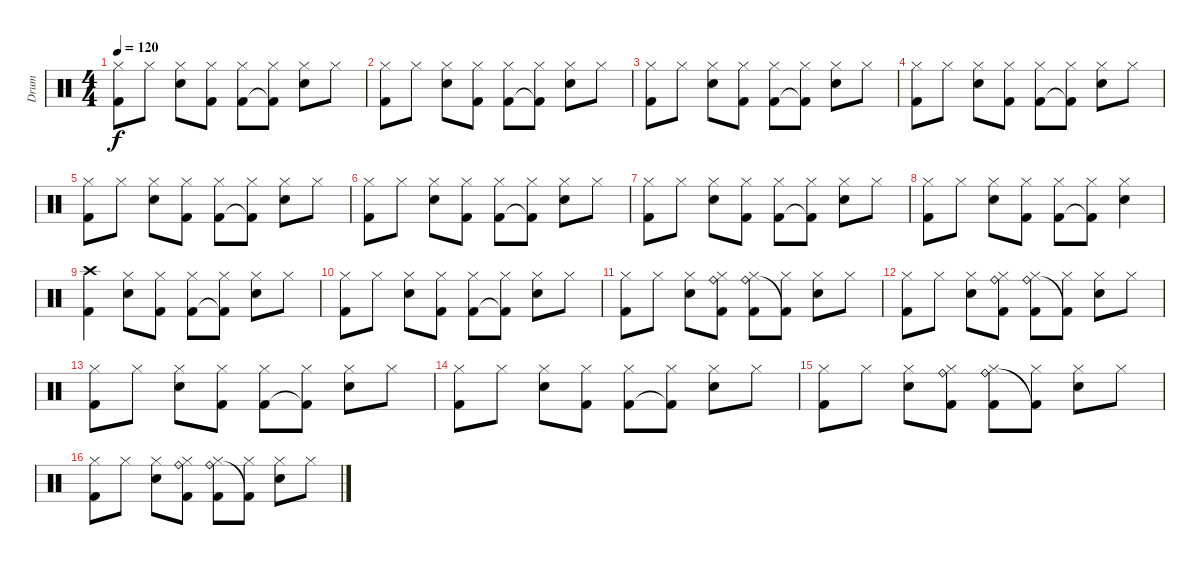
\track ("Drum" "Drum") {instrument percussion}
\staff {score}
\articulation defaults
\ts (4 4)
\tempo 120
\clef neutral
\ks c
("Hi-Hat (closed)" "Kick (hit) 2").8{dy f} "Hi-Hat (closed)".8 ("Hi-Hat (closed)" "Snare (hit) 2").8 ("Hi-Hat (closed)" "Kick (hit) 2").8 ("Hi-Hat (closed)" "Kick (hit) 2").8 ("Hi-Hat (closed)" "Kick (hit) 2"{t}).8 ("Hi-Hat (closed)" "Snare (hit) 2").8 "Hi-Hat (closed)".8 |
("Hi-Hat (closed)" "Kick (hit) 2").8 "Hi-Hat (closed)".8 ("Hi-Hat (closed)" "Snare (hit) 2").8 ("Hi-Hat (closed)" "Kick (hit) 2").8 ("Hi-Hat (closed)" "Kick (hit) 2").8 ("Hi-Hat (closed)" "Kick (hit) 2"{t}).8 ("Hi-Hat (closed)" "Snare (hit) 2").8 "Hi-Hat (closed)".8 |
("Hi-Hat (closed)" "Kick (hit) 2").8 "Hi-Hat (closed)".8 ("Hi-Hat (closed)" "Snare (hit) 2").8 ("Hi-Hat (closed)" "Kick (hit) 2").8 ("Hi-Hat (closed)" "Kick (hit) 2").8 ("Hi-Hat (closed)" "Kick (hit) 2"{t}).8 ("Hi-Hat (closed)" "Snare (hit) 2").8 "Hi-Hat (closed)".8 |
("Hi-Hat (closed)" "Kick (hit) 2").8 "Hi-Hat (closed)".8 ("Hi-Hat (closed)" "Snare (hit) 2").8 ("Hi-Hat (closed)" "Kick (hit) 2").8 ("Hi-Hat (closed)" "Kick (hit) 2").8 ("Hi-Hat (closed)" "Kick (hit) 2"{t}).8 ("Hi-Hat (closed)" "Snare (hit) 2").8 "Hi-Hat (closed)".8 |
("Hi-Hat (closed)" "Kick (hit) 2").8 "Hi-Hat (closed)".8 ("Hi-Hat (closed)" "Snare (hit) 2").8 ("Hi-Hat (closed)" "Kick (hit) 2").8 ("Hi-Hat (closed)" "Kick (hit) 2").8 ("Hi-Hat (closed)" "Kick (hit) 2"{t}).8 ("Hi-Hat (closed)" "Snare (hit) 2").8 "Hi-Hat (closed)".8 |
("Hi-Hat (closed)" "Kick (hit) 2").8 "Hi-Hat (closed)".8 ("Hi-Hat (closed)" "Snare (hit) 2").8 ("Hi-Hat (closed)" "Kick (hit) 2").8 ("Hi-Hat (closed)" "Kick (hit) 2").8 ("Hi-Hat (closed)" "Kick (hit) 2"{t}).8 ("Hi-Hat (closed)" "Snare (hit) 2").8 "Hi-Hat (closed)".8 |
("Hi-Hat (closed)" "Kick (hit) 2").8 "Hi-Hat (closed)".8 ("Hi-Hat (closed)" "Snare (hit) 2").8 ("Hi-Hat (closed)" "Kick (hit) 2").8 ("Hi-Hat (closed)" "Kick (hit) 2").8 ("Hi-Hat (closed)" "Kick (hit) 2"{t}).8 ("Hi-Hat (closed)" "Snare (hit) 2").8 "Hi-Hat (closed)".8 |
("Hi-Hat (closed)" "Kick (hit) 2").8 "Hi-Hat (closed)".8 ("Hi-Hat (closed)" "Snare (hit) 2").8 ("Hi-Hat (closed)" "Kick (hit) 2").8 ("Hi-Hat (closed)" "Kick (hit) 2").8 ("Hi-Hat (closed)" "Kick (hit) 2"{t}).8 ("Hi-Hat (closed)" "Snare (hit) 2").4 |
("Crash high (hit)" "Kick (hit) 2").4 ("Hi-Hat (closed)" "Snare (hit) 2").8 ("Hi-Hat (closed)" "Kick (hit) 2").8 ("Hi-Hat (closed)" "Kick (hit) 2").8 ("Hi-Hat (closed)" "Kick (hit) 2"{t}).8 ("Hi-Hat (closed)" "Snare (hit) 2").8 "Hi-Hat (closed)".8 |
("Hi-Hat (closed)" "Kick (hit) 2").8 "Hi-Hat (closed)".8 ("Hi-Hat (closed)" "Snare (hit) 2").8 ("Hi-Hat (closed)" "Kick (hit) 2").8 ("Hi-Hat (closed)" "Kick (hit) 2").8 ("Hi-Hat (closed)" "Kick (hit) 2"{t}).8 ("Hi-Hat (closed)" "Snare (hit) 2").8 "Hi-Hat (closed)".8 |
("Hi-Hat (closed)" "Kick (hit) 2").8 "Hi-Hat (closed)".8 ("Hi-Hat (closed)" "Snare (hit) 2").8 ("Hi-Hat (closed)" "Ride (bell)" "Kick (hit) 2").8 ("Hi-Hat (closed)" "Ride (bell)" "Kick (hit) 2").8 ("Hi-Hat (closed)" "Kick (hit) 2"{t}).8 ("Hi-Hat (closed)" "Snare (hit) 2").8 "Hi-Hat (closed)".8 |
("Hi-Hat (closed)" "Kick (hit) 2").8 "Hi-Hat (closed)".8 ("Hi-Hat (closed)" "Snare (hit) 2").8 ("Hi-Hat (closed)" "Ride (bell)" "Kick (hit) 2").8 ("Hi-Hat (closed)" "Ride (bell)" "Kick (hit) 2").8 ("Hi-Hat (closed)" "Kick (hit) 2"{t}).8 ("Hi-Hat (closed)" "Snare (hit) 2").8 "Hi-Hat (closed)".8 |
("Hi-Hat (closed)" "Kick (hit) 2").8 "Hi-Hat (closed)".8 ("Hi-Hat (closed)" "Snare (hit) 2").8 ("Hi-Hat (closed)" "Kick (hit) 2").8 ("Hi-Hat (closed)" "Kick (hit) 2").8 ("Hi-Hat (closed)" "Kick (hit) 2"{t}).8 ("Hi-Hat (closed)" "Snare (hit) 2").8 "Hi-Hat (closed)".8 |
("Hi-Hat (closed)" "Kick (hit) 2").8 "Hi-Hat (closed)".8 ("Hi-Hat (closed)" "Snare (hit) 2").8 ("Hi-Hat (closed)" "Kick (hit) 2").8 ("Hi-Hat (closed)" "Kick (hit) 2").8 ("Hi-Hat (closed)" "Kick (hit) 2"{t}).8 ("Hi-Hat (closed)" "Snare (hit) 2").8 "Hi-Hat (closed)".8 |
("Hi-Hat (closed)" "Kick (hit) 2").8 "Hi-Hat (closed)".8 ("Hi-Hat (closed)" "Snare (hit) 2").8 ("Hi-Hat (closed)" "Ride (bell)" "Kick (hit) 2").8 ("Hi-Hat (closed)" "Ride (bell)" "Kick (hit) 2").8 ("Hi-Hat (closed)" "Kick (hit) 2"{t}).8 ("Hi-Hat (closed)" "Snare (hit) 2").8 "Hi-Hat (closed)".8 |
("Hi-Hat (closed)" "Kick (hit) 2").8 "Hi-Hat (closed)".8 ("Hi-Hat (closed)" "Snare (hit) 2").8 ("Hi-Hat (closed)" "Ride (bell)" "Kick (hit) 2").8 ("Hi-Hat (closed)" "Ride (bell)" "Kick (hit) 2").8 ("Hi-Hat (closed)" "Kick (hit) 2"{t}).8 ("Hi-Hat (closed)" "Snare (hit) 2").8 "Hi-Hat (closed)".8
